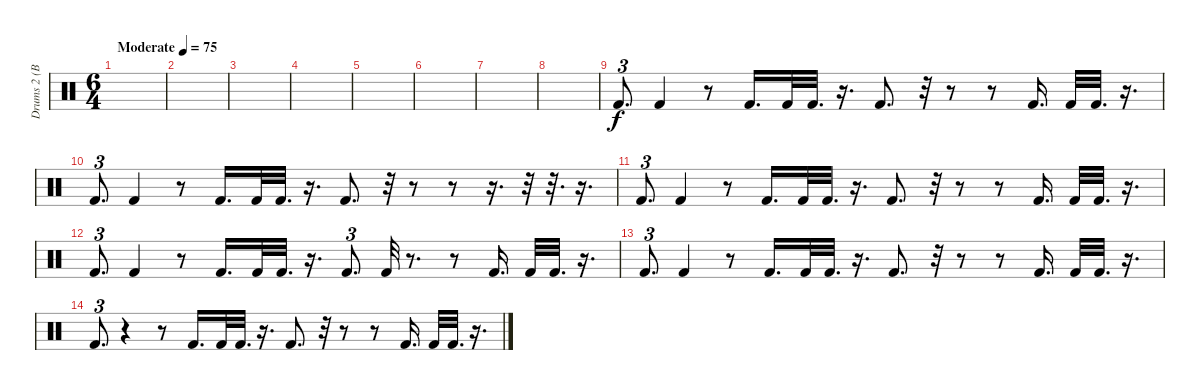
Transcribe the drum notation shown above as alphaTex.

\track ("Drums 2 (Bass Drum)" "Drums 2 (B") {instrument percussion}
\staff {score}
\articulation defaults
\ts (6 4)
\tempo (75 "Moderate")
\clef neutral
\ks c
|
|
|
|
|
|
|
|
"Kick (hit) 2".8{d tu (3 2)} "Kick (hit) 2".4 r.8 "Kick (hit) 2".16{d} "Kick (hit) 2".32 "Kick (hit) 2".32{d} r.16{d} "Kick (hit) 2".8{d} r.32 r.8 r.8 "Kick (hit) 2".16{d} "Kick (hit) 2".32 "Kick (hit) 2".32{d} r.16{d} |
"Kick (hit) 2".8{d tu (3 2)} "Kick (hit) 2".4 r.8 "Kick (hit) 2".16{d} "Kick (hit) 2".32 "Kick (hit) 2".32{d} r.16{d} "Kick (hit) 2".8{d} r.32 r.8 r.8 r.16{d} r.32 r.32{d} r.16{d} |
"Kick (hit) 2".8{d tu (3 2)} "Kick (hit) 2".4 r.8 "Kick (hit) 2".16{d} "Kick (hit) 2".32 "Kick (hit) 2".32{d} r.16{d} "Kick (hit) 2".8{d} r.32 r.8 r.8 "Kick (hit) 2".16{d} "Kick (hit) 2".32 "Kick (hit) 2".32{d} r.16{d} |
"Kick (hit) 2".8{d tu (3 2)} "Kick (hit) 2".4 r.8 "Kick (hit) 2".16{d} "Kick (hit) 2".32 "Kick (hit) 2".32{d} r.16{d} "Kick (hit) 2".8{d tu (3 2)} "Kick (hit) 2".32 r.8{d} r.8 "Kick (hit) 2".16{d} "Kick (hit) 2".32 "Kick (hit) 2".32{d} r.16{d} |
"Kick (hit) 2".8{d tu (3 2)} "Kick (hit) 2".4 r.8 "Kick (hit) 2".16{d} "Kick (hit) 2".32 "Kick (hit) 2".32{d} r.16{d} "Kick (hit) 2".8{d} r.32 r.8 r.8 "Kick (hit) 2".16{d} "Kick (hit) 2".32 "Kick (hit) 2".32{d} r.16{d} |
"Kick (hit) 2".8{d tu (3 2)} r.4 r.8 "Kick (hit) 2".16{d} "Kick (hit) 2".32 "Kick (hit) 2".32{d} r.16{d} "Kick (hit) 2".8{d} r.32 r.8 r.8 "Kick (hit) 2".16{d} "Kick (hit) 2".32 "Kick (hit) 2".32{d} r.16{d}
